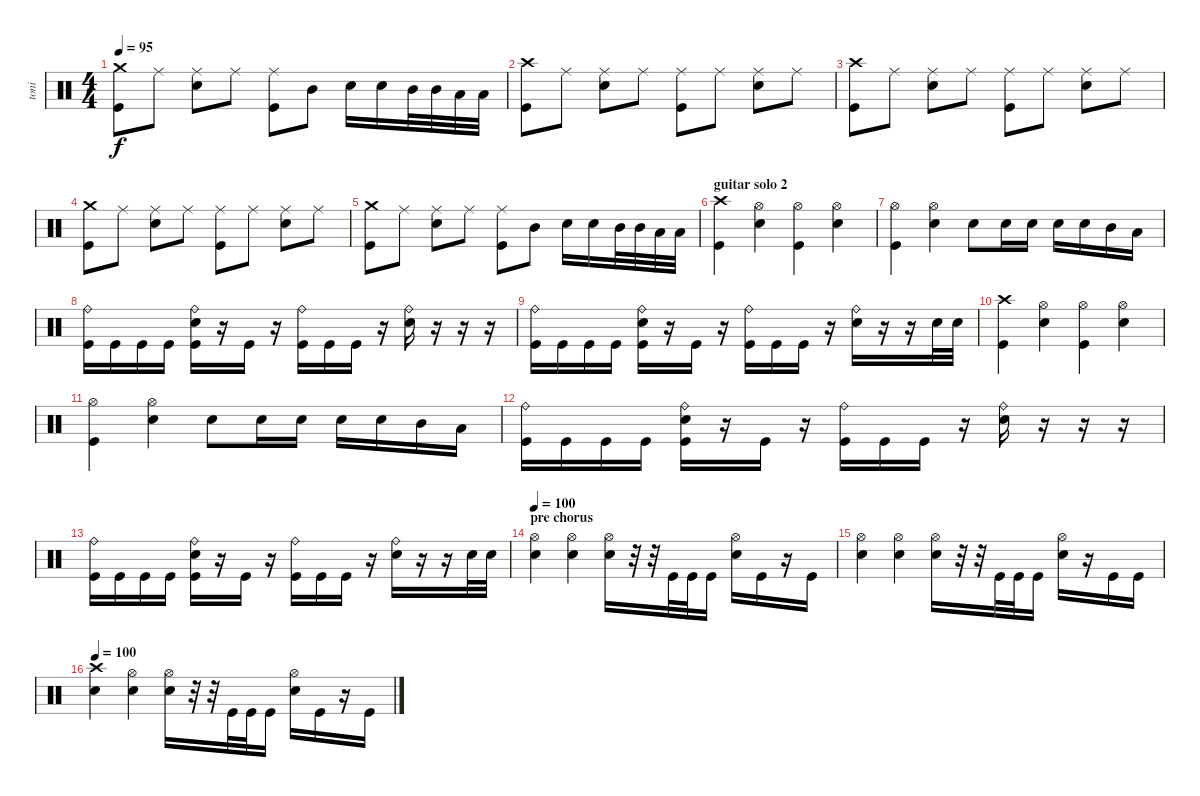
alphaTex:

\track ("toni" "toni") {instrument percussion}
\staff {score}
\articulation defaults
\ts (4 4)
\tempo 95
\clef neutral
\ks c
("Crash medium (hit)" "Kick (hit)").8{dy f} "Ride (middle)".8 ("Ride (middle)" "Snare (hit) 2").8 "Ride (middle)".8 ("Ride (middle)" "Kick (hit)").8 "Mid Tom (hit)".8 "Snare (hit) 2".16 "Snare (hit) 2".16 "Mid Tom (hit)".32 "Mid Tom (hit)".32 "Low Tom (hit)".32 "Low Tom (hit)".32 |
("Crash high (hit)" "Kick (hit)").8 "Ride (middle)".8 ("Ride (middle)" "Snare (hit) 2").8 "Ride (middle)".8 ("Ride (middle)" "Kick (hit)").8 "Ride (middle)".8 ("Ride (middle)" "Snare (hit) 2").8 "Ride (middle)".8 |
("Crash high (hit)" "Kick (hit)").8 "Ride (middle)".8 ("Ride (middle)" "Snare (hit) 2").8 "Ride (middle)".8 ("Ride (middle)" "Kick (hit)").8 "Ride (middle)".8 ("Ride (middle)" "Snare (hit) 2").8 "Ride (middle)".8 |
("Crash medium (hit)" "Kick (hit)").8 "Ride (middle)".8 ("Ride (middle)" "Snare (hit) 2").8 "Ride (middle)".8 ("Ride (middle)" "Kick (hit)").8 "Ride (middle)".8 ("Ride (middle)" "Snare (hit) 2").8 "Ride (middle)".8 |
("Crash medium (hit)" "Kick (hit)").8 "Ride (middle)".8 ("Ride (middle)" "Snare (hit) 2").8 "Ride (middle)".8 ("Ride (middle)" "Kick (hit)").8 "Mid Tom (hit)".8 "Snare (hit) 2".16 "Snare (hit) 2".16 "Mid Tom (hit)".32 "Mid Tom (hit)".32 "Low Tom (hit)".32 "Low Tom (hit)".32 |
\section ("" "guitar solo 2")
("Crash high (hit)" "Kick (hit)").4 ("Hi-Hat (open)" "Snare (hit) 2").4 ("Hi-Hat (open)" "Kick (hit)").4 ("Hi-Hat (open)" "Snare (hit) 2").4 |
("Hi-Hat (open)" "Kick (hit)").4 ("Hi-Hat (open)" "Snare (hit) 2").4 "Snare (hit) 2".8 "Snare (hit) 2".16 "Snare (hit) 2".16 "Snare (hit) 2".16 "Snare (hit) 2".16 "Mid Tom (hit)".16 "Low Tom (hit)".16 |
("Ride (bell)" "Kick (hit)").16 "Kick (hit)".16 "Kick (hit)".16 "Kick (hit)".16 ("Ride (bell)" "Snare (hit) 2" "Kick (hit)").16 r.16 "Kick (hit)".16 r.16 ("Ride (bell)" "Kick (hit)").16 "Kick (hit)".16 "Kick (hit)".16 r.16 ("Ride (bell)" "Snare (hit) 2").16 r.16 r.16 r.16 |
("Ride (bell)" "Kick (hit)").16 "Kick (hit)".16 "Kick (hit)".16 "Kick (hit)".16 ("Ride (bell)" "Snare (hit) 2" "Kick (hit)").16 r.16 "Kick (hit)".16 r.16 ("Ride (bell)" "Kick (hit)").16 "Kick (hit)".16 "Kick (hit)".16 r.16 ("Ride (bell)" "Snare (hit) 2").16 r.16 r.16 "Snare (hit) 2".32 "Snare (hit) 2".32 |
("Crash high (hit)" "Kick (hit)").4 ("Hi-Hat (open)" "Snare (hit) 2").4 ("Hi-Hat (open)" "Kick (hit)").4 ("Hi-Hat (open)" "Snare (hit) 2").4 |
("Hi-Hat (open)" "Kick (hit)").4 ("Hi-Hat (open)" "Snare (hit) 2").4 "Snare (hit) 2".8 "Snare (hit) 2".16 "Snare (hit) 2".16 "Snare (hit) 2".16 "Snare (hit) 2".16 "Mid Tom (hit)".16 "Low Tom (hit)".16 |
("Ride (bell)" "Kick (hit)").16 "Kick (hit)".16 "Kick (hit)".16 "Kick (hit)".16 ("Ride (bell)" "Snare (hit) 2" "Kick (hit)").16 r.16 "Kick (hit)".16 r.16 ("Ride (bell)" "Kick (hit)").16 "Kick (hit)".16 "Kick (hit)".16 r.16 ("Ride (bell)" "Snare (hit) 2").16 r.16 r.16 r.16 |
("Ride (bell)" "Kick (hit)").16 "Kick (hit)".16 "Kick (hit)".16 "Kick (hit)".16 ("Ride (bell)" "Snare (hit) 2" "Kick (hit)").16 r.16 "Kick (hit)".16 r.16 ("Ride (bell)" "Kick (hit)").16 "Kick (hit)".16 "Kick (hit)".16 r.16 ("Ride (bell)" "Snare (hit) 2").16 r.16 r.16 "Snare (hit) 2".32 "Snare (hit) 2".32 |
\section ("" "pre chorus")
\tempo 100
("Hi-Hat (open)" "Snare (hit) 2").4 ("Hi-Hat (open)" "Snare (hit) 2").4 ("Hi-Hat (open)" "Snare (hit) 2").16 r.32 r.32 "Kick (hit)".32 "Kick (hit)".32 "Kick (hit)".16 ("Hi-Hat (open)" "Snare (hit) 2").16 "Kick (hit)".16 r.16 "Kick (hit)".16 |
("Hi-Hat (open)" "Snare (hit) 2").4 ("Hi-Hat (open)" "Snare (hit) 2").4 ("Hi-Hat (open)" "Snare (hit) 2").16 r.32 r.32 "Kick (hit)".32 "Kick (hit)".32 "Kick (hit)".16 ("Hi-Hat (open)" "Snare (hit) 2").16 r.16 "Kick (hit)".16 "Kick (hit)".16 |
\tempo 100
("Crash high (hit)" "Snare (hit) 2").4 ("Hi-Hat (open)" "Snare (hit) 2").4 ("Hi-Hat (open)" "Snare (hit) 2").16 r.32 r.32 "Kick (hit)".32 "Kick (hit)".32 "Kick (hit)".16 ("Hi-Hat (open)" "Snare (hit) 2").16 "Kick (hit)".16 r.16 "Kick (hit)".16
